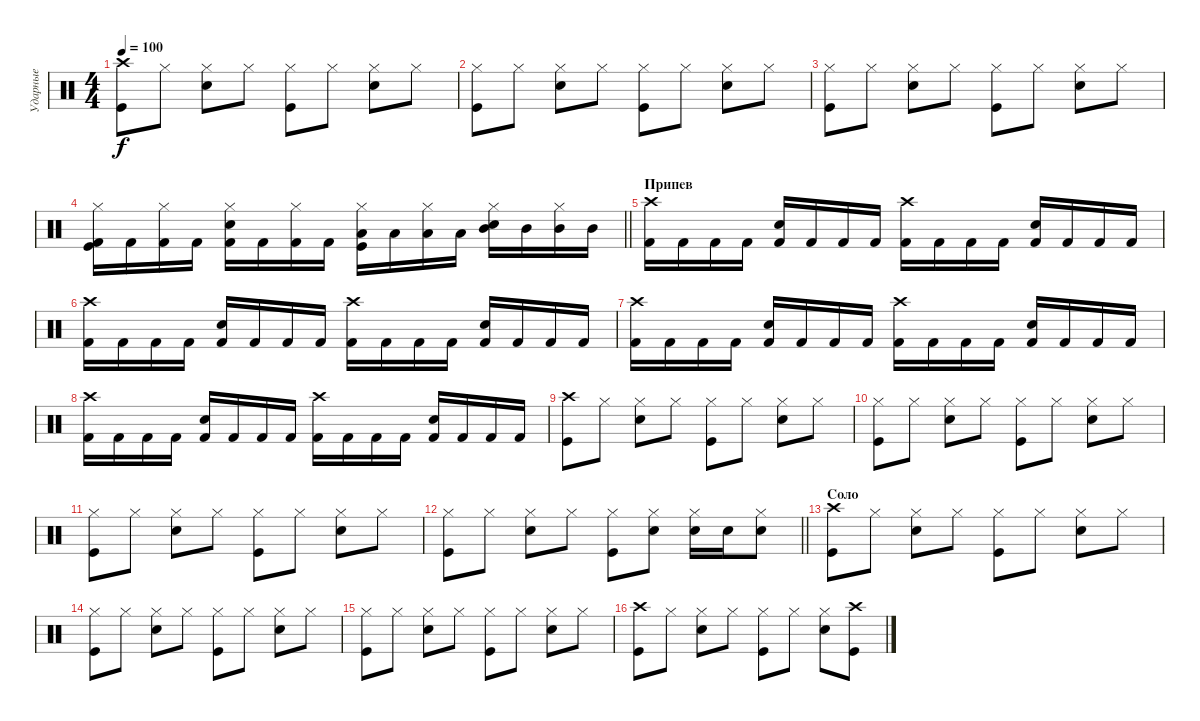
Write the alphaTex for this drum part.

\track ("Ударные" "Ударные") {instrument percussion}
\staff {score}
\articulation defaults
\ts (4 4)
\tempo 100
\clef neutral
\ks c
("Kick (hit)" "Crash high (hit)").8{dy f} "Hi-Hat (closed)".8 ("Snare (hit) 2" "Hi-Hat (closed)").8 "Hi-Hat (closed)".8 ("Kick (hit)" "Hi-Hat (closed)").8 "Hi-Hat (closed)".8 ("Snare (hit) 2" "Hi-Hat (closed)").8 "Hi-Hat (closed)".8 |
("Kick (hit)" "Hi-Hat (closed)").8 "Hi-Hat (closed)".8 ("Snare (hit) 2" "Hi-Hat (closed)").8 "Hi-Hat (closed)".8 ("Kick (hit)" "Hi-Hat (closed)").8 "Hi-Hat (closed)".8 ("Snare (hit) 2" "Hi-Hat (closed)").8 "Hi-Hat (closed)".8 |
("Kick (hit)" "Hi-Hat (closed)").8 "Hi-Hat (closed)".8 ("Snare (hit) 2" "Hi-Hat (closed)").8 "Hi-Hat (closed)".8 ("Kick (hit)" "Hi-Hat (closed)").8 "Hi-Hat (closed)".8 ("Snare (hit) 2" "Hi-Hat (closed)").8 "Hi-Hat (closed)".8 |
\barLineRight lightlight
("Kick (hit)" "Kick (hit) 2" "Hi-Hat (closed)").16 "Kick (hit) 2".16 ("Kick (hit) 2" "Hi-Hat (closed)").16 "Kick (hit) 2".16 ("Snare (hit) 2" "Kick (hit) 2" "Hi-Hat (closed)").16 "Kick (hit) 2".16 ("Kick (hit) 2" "Hi-Hat (closed)").16 "Kick (hit) 2".16 ("Kick (hit)" "Low Tom (hit)" "Hi-Hat (closed)").16 "Low Tom (hit)".16 ("Low Tom (hit)" "Hi-Hat (closed)").16 "Low Tom (hit)".16 ("Snare (hit) 2" "Mid Tom (hit)" "Hi-Hat (closed)").16 "Mid Tom (hit)".16 ("Mid Tom (hit)" "Hi-Hat (closed)").16 "Mid Tom (hit)".16 |
\section ("" "Припев")
("Kick (hit) 2" "Crash high (hit)").16 "Kick (hit) 2".16 "Kick (hit) 2".16 "Kick (hit) 2".16 ("Kick (hit) 2" "Snare (hit) 2").16 "Kick (hit) 2".16 "Kick (hit) 2".16 "Kick (hit) 2".16 ("Kick (hit) 2" "Crash high (hit)").16 "Kick (hit) 2".16 "Kick (hit) 2".16 "Kick (hit) 2".16 ("Kick (hit) 2" "Snare (hit) 2").16 "Kick (hit) 2".16 "Kick (hit) 2".16 "Kick (hit) 2".16 |
("Kick (hit) 2" "Crash high (hit)").16 "Kick (hit) 2".16 "Kick (hit) 2".16 "Kick (hit) 2".16 ("Kick (hit) 2" "Snare (hit) 2").16 "Kick (hit) 2".16 "Kick (hit) 2".16 "Kick (hit) 2".16 ("Kick (hit) 2" "Crash high (hit)").16 "Kick (hit) 2".16 "Kick (hit) 2".16 "Kick (hit) 2".16 ("Kick (hit) 2" "Snare (hit) 2").16 "Kick (hit) 2".16 "Kick (hit) 2".16 "Kick (hit) 2".16 |
("Kick (hit) 2" "Crash high (hit)").16 "Kick (hit) 2".16 "Kick (hit) 2".16 "Kick (hit) 2".16 ("Kick (hit) 2" "Snare (hit) 2").16 "Kick (hit) 2".16 "Kick (hit) 2".16 "Kick (hit) 2".16 ("Kick (hit) 2" "Crash high (hit)").16 "Kick (hit) 2".16 "Kick (hit) 2".16 "Kick (hit) 2".16 ("Kick (hit) 2" "Snare (hit) 2").16 "Kick (hit) 2".16 "Kick (hit) 2".16 "Kick (hit) 2".16 |
("Kick (hit) 2" "Crash high (hit)").16 "Kick (hit) 2".16 "Kick (hit) 2".16 "Kick (hit) 2".16 ("Kick (hit) 2" "Snare (hit) 2").16 "Kick (hit) 2".16 "Kick (hit) 2".16 "Kick (hit) 2".16 ("Kick (hit) 2" "Crash high (hit)").16 "Kick (hit) 2".16 "Kick (hit) 2".16 "Kick (hit) 2".16 ("Kick (hit) 2" "Snare (hit) 2").16 "Kick (hit) 2".16 "Kick (hit) 2".16 "Kick (hit) 2".16 |
("Kick (hit)" "Crash high (hit)").8 "Hi-Hat (closed)".8 ("Snare (hit) 2" "Hi-Hat (closed)").8 "Hi-Hat (closed)".8 ("Kick (hit)" "Hi-Hat (closed)").8 "Hi-Hat (closed)".8 ("Snare (hit) 2" "Hi-Hat (closed)").8 "Hi-Hat (closed)".8 |
("Kick (hit)" "Hi-Hat (closed)").8 "Hi-Hat (closed)".8 ("Snare (hit) 2" "Hi-Hat (closed)").8 "Hi-Hat (closed)".8 ("Kick (hit)" "Hi-Hat (closed)").8 "Hi-Hat (closed)".8 ("Snare (hit) 2" "Hi-Hat (closed)").8 "Hi-Hat (closed)".8 |
("Kick (hit)" "Hi-Hat (closed)").8 "Hi-Hat (closed)".8 ("Snare (hit) 2" "Hi-Hat (closed)").8 "Hi-Hat (closed)".8 ("Kick (hit)" "Hi-Hat (closed)").8 "Hi-Hat (closed)".8 ("Snare (hit) 2" "Hi-Hat (closed)").8 "Hi-Hat (closed)".8 |
\barLineRight lightlight
("Kick (hit)" "Hi-Hat (closed)").8 "Hi-Hat (closed)".8 ("Snare (hit) 2" "Hi-Hat (closed)").8 "Hi-Hat (closed)".8 ("Kick (hit)" "Hi-Hat (closed)").8 ("Snare (hit) 2" "Hi-Hat (closed)").8 ("Snare (hit) 2" "Hi-Hat (closed)").16 "Snare (hit) 2".16 ("Snare (hit) 2" "Hi-Hat (closed)").8 |
\section ("" "Соло")
("Kick (hit)" "Crash high (hit)").8 "Hi-Hat (closed)".8 ("Snare (hit) 2" "Hi-Hat (closed)").8 "Hi-Hat (closed)".8 ("Kick (hit)" "Hi-Hat (closed)").8 "Hi-Hat (closed)".8 ("Snare (hit) 2" "Hi-Hat (closed)").8 "Hi-Hat (closed)".8 |
("Kick (hit)" "Hi-Hat (closed)").8 "Hi-Hat (closed)".8 ("Snare (hit) 2" "Hi-Hat (closed)").8 "Hi-Hat (closed)".8 ("Kick (hit)" "Hi-Hat (closed)").8 "Hi-Hat (closed)".8 ("Snare (hit) 2" "Hi-Hat (closed)").8 "Hi-Hat (closed)".8 |
("Kick (hit)" "Hi-Hat (closed)").8 "Hi-Hat (closed)".8 ("Snare (hit) 2" "Hi-Hat (closed)").8 "Hi-Hat (closed)".8 ("Kick (hit)" "Hi-Hat (closed)").8 "Hi-Hat (closed)".8 ("Snare (hit) 2" "Hi-Hat (closed)").8 "Hi-Hat (closed)".8 |
("Kick (hit)" "Crash high (hit)").8 "Hi-Hat (closed)".8 ("Snare (hit) 2" "Hi-Hat (closed)").8 "Hi-Hat (closed)".8 ("Kick (hit)" "Hi-Hat (closed)").8 "Hi-Hat (closed)".8 ("Snare (hit) 2" "Hi-Hat (closed)").8 ("Kick (hit)" "Crash high (hit)").8
